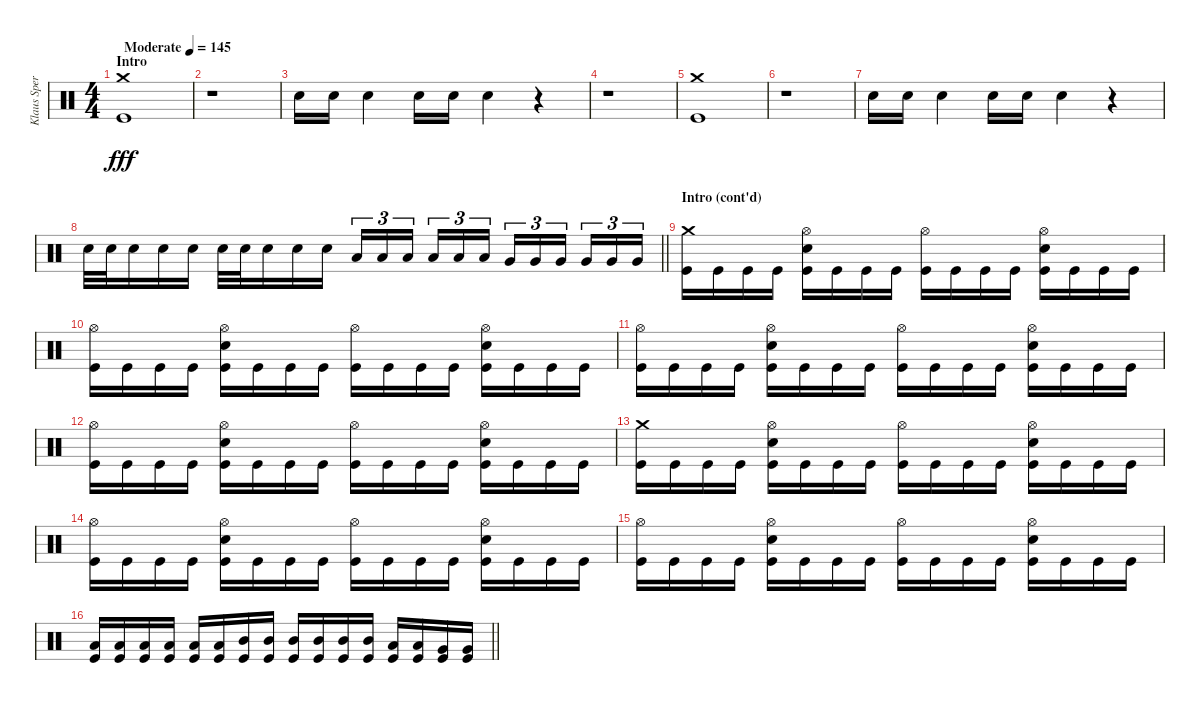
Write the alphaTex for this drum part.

\track ("Klaus Sperling" "Klaus Sper") {instrument percussion}
\staff {score}
\articulation defaults
\ts (4 4)
\section ("" "Intro")
\tempo (145 "Moderate")
\clef neutral
\ks c
("Crash medium (hit)" "Kick (hit)").1{dy fff} |
r.1 |
"Electric Snare (hit)".16 "Electric Snare (hit)".16 "Electric Snare (hit)".4 "Electric Snare (hit)".16 "Electric Snare (hit)".16 "Electric Snare (hit)".4 r.4 |
r.1 |
("Crash medium (hit)" "Kick (hit)").1 |
r.1 |
"Electric Snare (hit)".16 "Electric Snare (hit)".16 "Electric Snare (hit)".4 "Electric Snare (hit)".16 "Electric Snare (hit)".16 "Electric Snare (hit)".4 r.4 |
\barLineRight lightlight "Electric Snare (hit)".32 "Electric Snare (hit)".32 "Electric Snare (hit)".16 "Electric Snare (hit)".16 "Electric Snare (hit)".16 "Electric Snare (hit)".32 "Electric Snare (hit)".32 "Electric Snare (hit)".16 "Electric Snare (hit)".16 "Electric Snare (hit)".16 "Low Tom (hit)".16{tu (3 2)} "Low Tom (hit)".16{tu (3 2)} "Low Tom (hit)".16{tu (3 2) beam splitsecondary} "Low Tom (hit)".16{tu (3 2)} "Low Tom (hit)".16{tu (3 2)} "Low Tom (hit)".16{tu (3 2)} "Very Low Tom (hit)".16{tu (3 2)} "Very Low Tom (hit)".16{tu (3 2)} "Very Low Tom (hit)".16{tu (3 2) beam splitsecondary} "Very Low Tom (hit)".16{tu (3 2)} "Very Low Tom (hit)".16{tu (3 2)} "Very Low Tom (hit)".16{tu (3 2)}
|
\section ("" "Intro (cont'd)")
("Crash medium (hit)" "Kick (hit)").16 "Kick (hit)".16 "Kick (hit)".16 "Kick (hit)".16 ("Hi-Hat (open)" "Electric Snare (hit)" "Kick (hit)").16 "Kick (hit)".16 "Kick (hit)".16 "Kick (hit)".16 ("Hi-Hat (open)" "Kick (hit)").16 "Kick (hit)".16 "Kick (hit)".16 "Kick (hit)".16 ("Hi-Hat (open)" "Electric Snare (hit)" "Kick (hit)").16 "Kick (hit)".16 "Kick (hit)".16 "Kick (hit)".16 |
("Hi-Hat (open)" "Kick (hit)").16 "Kick (hit)".16 "Kick (hit)".16 "Kick (hit)".16 ("Hi-Hat (open)" "Electric Snare (hit)" "Kick (hit)").16 "Kick (hit)".16 "Kick (hit)".16 "Kick (hit)".16 ("Hi-Hat (open)" "Kick (hit)").16 "Kick (hit)".16 "Kick (hit)".16 "Kick (hit)".16 ("Hi-Hat (open)" "Electric Snare (hit)" "Kick (hit)").16 "Kick (hit)".16 "Kick (hit)".16 "Kick (hit)".16 |
("Hi-Hat (open)" "Kick (hit)").16 "Kick (hit)".16 "Kick (hit)".16 "Kick (hit)".16 ("Hi-Hat (open)" "Electric Snare (hit)" "Kick (hit)").16 "Kick (hit)".16 "Kick (hit)".16 "Kick (hit)".16 ("Hi-Hat (open)" "Kick (hit)").16 "Kick (hit)".16 "Kick (hit)".16 "Kick (hit)".16 ("Hi-Hat (open)" "Electric Snare (hit)" "Kick (hit)").16 "Kick (hit)".16 "Kick (hit)".16 "Kick (hit)".16 |
("Hi-Hat (open)" "Kick (hit)").16 "Kick (hit)".16 "Kick (hit)".16 "Kick (hit)".16 ("Hi-Hat (open)" "Electric Snare (hit)" "Kick (hit)").16 "Kick (hit)".16 "Kick (hit)".16 "Kick (hit)".16 ("Hi-Hat (open)" "Kick (hit)").16 "Kick (hit)".16 "Kick (hit)".16 "Kick (hit)".16 ("Hi-Hat (open)" "Electric Snare (hit)" "Kick (hit)").16 "Kick (hit)".16 "Kick (hit)".16 "Kick (hit)".16 |
("Crash medium (hit)" "Kick (hit)").16 "Kick (hit)".16 "Kick (hit)".16 "Kick (hit)".16 ("Hi-Hat (open)" "Electric Snare (hit)" "Kick (hit)").16 "Kick (hit)".16 "Kick (hit)".16 "Kick (hit)".16 ("Hi-Hat (open)" "Kick (hit)").16 "Kick (hit)".16 "Kick (hit)".16 "Kick (hit)".16 ("Hi-Hat (open)" "Electric Snare (hit)" "Kick (hit)").16 "Kick (hit)".16 "Kick (hit)".16 "Kick (hit)".16 |
("Hi-Hat (open)" "Kick (hit)").16 "Kick (hit)".16 "Kick (hit)".16 "Kick (hit)".16 ("Hi-Hat (open)" "Electric Snare (hit)" "Kick (hit)").16 "Kick (hit)".16 "Kick (hit)".16 "Kick (hit)".16 ("Hi-Hat (open)" "Kick (hit)").16 "Kick (hit)".16 "Kick (hit)".16 "Kick (hit)".16 ("Hi-Hat (open)" "Electric Snare (hit)" "Kick (hit)").16 "Kick (hit)".16 "Kick (hit)".16 "Kick (hit)".16 |
("Hi-Hat (open)" "Kick (hit)").16 "Kick (hit)".16 "Kick (hit)".16 "Kick (hit)".16 ("Hi-Hat (open)" "Electric Snare (hit)" "Kick (hit)").16 "Kick (hit)".16 "Kick (hit)".16 "Kick (hit)".16 ("Hi-Hat (open)" "Kick (hit)").16 "Kick (hit)".16 "Kick (hit)".16 "Kick (hit)".16 ("Hi-Hat (open)" "Electric Snare (hit)" "Kick (hit)").16 "Kick (hit)".16 "Kick (hit)".16 "Kick (hit)".16 |
\barLineRight lightlight
("Low Tom (hit)" "Kick (hit)").16 ("Low Tom (hit)" "Kick (hit)").16 ("Low Tom (hit)" "Kick (hit)").16 ("Low Tom (hit)" "Kick (hit)").16 ("Low Tom (hit)" "Kick (hit)").16 ("Low Tom (hit)" "Kick (hit)").16 ("Mid Tom (hit)" "Kick (hit)").16 ("Mid Tom (hit)" "Kick (hit)").16 ("Mid Tom (hit)" "Kick (hit)").16 ("Mid Tom (hit)" "Kick (hit)").16 ("Mid Tom (hit)" "Kick (hit)").16 ("Mid Tom (hit)" "Kick (hit)").16 ("Low Tom (hit)" "Kick (hit)").16 ("Low Tom (hit)" "Kick (hit)").16 ("Very Low Tom (hit)" "Kick (hit)").16 ("Very Low Tom (hit)" "Kick (hit)").16
